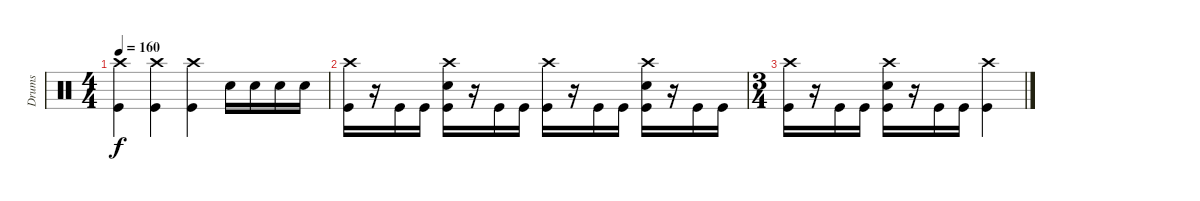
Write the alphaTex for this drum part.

\track ("Drums" "Drums") {instrument percussion}
\staff {score}
\articulation defaults
\ts (4 4)
\tempo 160
\clef neutral
\ks c
("Crash high (hit)" "Kick (hit)").4{dy f} ("Crash high (hit)" "Kick (hit)").4 ("Crash high (hit)" "Kick (hit)").4 "Electric Snare (hit)".16 "Electric Snare (hit)".16 "Electric Snare (hit)".16 "Electric Snare (hit)".16 |
("Crash high (hit)" "Kick (hit)").16 r.16 "Kick (hit)".16 "Kick (hit)".16 ("Crash high (hit)" "Electric Snare (hit)" "Kick (hit)").16 r.16 "Kick (hit)".16 "Kick (hit)".16 ("Crash high (hit)" "Kick (hit)").16 r.16 "Kick (hit)".16 "Kick (hit)".16 ("Crash high (hit)" "Electric Snare (hit)" "Kick (hit)").16 r.16 "Kick (hit)".16 "Kick (hit)".16 |
\ts (3 4)
("Crash high (hit)" "Kick (hit)").16 r.16 "Kick (hit)".16 "Kick (hit)".16 ("Crash high (hit)" "Electric Snare (hit)" "Kick (hit)").16 r.16 "Kick (hit)".16 "Kick (hit)".16 ("Crash high (hit)" "Kick (hit)").4
